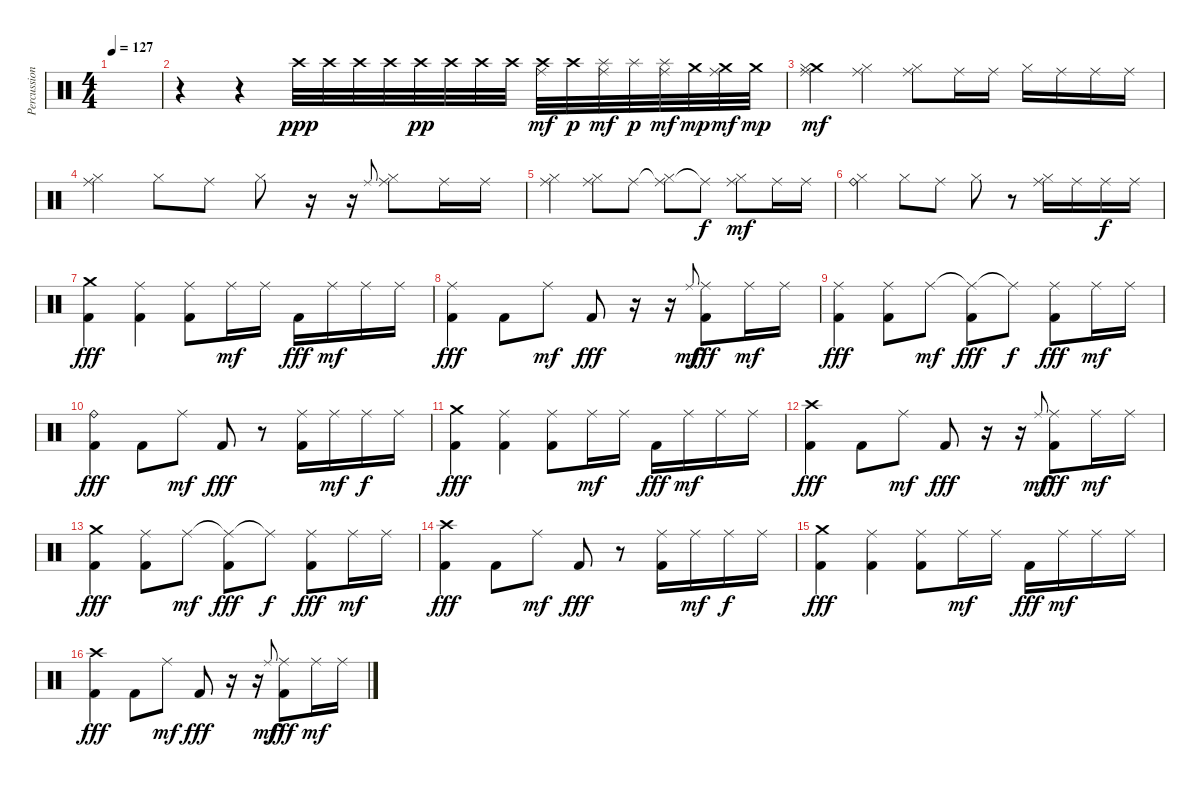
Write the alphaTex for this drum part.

\track ("Percussion" "Percussion") {instrument percussion}
\staff {score}
\articulation defaults
\ts (4 4)
\tempo 127
\clef neutral
\ks c
|
r.4 r.4 "Crash high (hit)".32{dy ppp} "Crash high (hit)".32 "Crash high (hit)".32 "Crash high (hit)".32 "Crash high (hit)".32{dy pp} "Crash high (hit)".32 "Crash high (hit)".32 "Crash high (hit)".32 ("Crash high (hit)" "Ride (middle)").32{dy mf} "Crash high (hit)".32{dy p} ("Splash (hit)" "Ride (middle)").32{dy mf} "Splash (hit)".32{dy p} ("Splash (hit)" "Ride (middle)").32{dy mf} "Crash medium (hit)".32{dy mp} ("Crash medium (hit)" "Ride (middle)").32{dy mf} "Crash medium (hit)".32{dy mp} |
("Crash medium (hit)" "Ride (middle)" "Hi-Hat (closed)").4{dy mf} ("Ride (middle)" "Hi-Hat (closed)").4 ("Ride (middle)" "Hi-Hat (closed)").8 "Ride (middle)".16 "Ride (middle)".16 "Hi-Hat (closed)".16 "Ride (middle)".16 "Ride (middle)".16 "Ride (middle)".16 |
("Ride (middle)" "Hi-Hat (closed)").4 "Hi-Hat (closed)".8 "Ride (middle)".8 "Hi-Hat (closed)".8 r.16 r.16 "Ride (middle)".8{gr onbeat} ("Ride (middle)" "Hi-Hat (closed)").8 "Ride (middle)".16 "Ride (middle)".16 |
("Ride (middle)" "Hi-Hat (closed)").4 ("Ride (middle)" "Hi-Hat (closed)").8 "Ride (middle)".8 ("Ride (middle)"{t} "Hi-Hat (closed)").8 "Ride (middle)"{t}.8{dy f} ("Ride (middle)" "Hi-Hat (closed)").8{dy mf} "Ride (middle)".16 "Ride (middle)".16 |
("Ride (bell)" "Hi-Hat (closed)").4 "Hi-Hat (closed)".8 "Ride (middle)".8 "Hi-Hat (closed)".8 r.8 ("Ride (middle)" "Hi-Hat (closed)").16 "Ride (middle)".16 "Ride (middle)".16{dy f} "Ride (middle)".16 |
("Crash medium (hit)" "Kick (hit) 2").4{dy fff} ("Ride (middle)" "Kick (hit) 2").4 ("Ride (middle)" "Kick (hit) 2").8 "Ride (middle)".16{dy mf} "Ride (middle)".16 "Kick (hit) 2".16{dy fff} "Ride (middle)".16{dy mf} "Ride (middle)".16 "Ride (middle)".16 |
("Ride (middle)" "Kick (hit) 2").4{dy fff} "Kick (hit) 2".8 "Ride (middle)".8{dy mf} "Kick (hit) 2".8{dy fff} r.16 r.16 "Ride (middle)".8{gr onbeat dy mf} ("Ride (middle)" "Kick (hit) 2").8{dy fff} "Ride (middle)".16{dy mf} "Ride (middle)".16 |
("Ride (middle)" "Kick (hit) 2").4{dy fff} ("Ride (middle)" "Kick (hit) 2").8 "Ride (middle)".8{dy mf} ("Ride (middle)"{t} "Kick (hit) 2").8{dy fff} "Ride (middle)"{t}.8{dy f} ("Ride (middle)" "Kick (hit) 2").8{dy fff} "Ride (middle)".16{dy mf} "Ride (middle)".16 |
("Ride (bell)" "Kick (hit) 2").4{dy fff} "Kick (hit) 2".8 "Ride (middle)".8{dy mf} "Kick (hit) 2".8{dy fff} r.8 ("Ride (middle)" "Kick (hit) 2").16 "Ride (middle)".16{dy mf} "Ride (middle)".16{dy f} "Ride (middle)".16 |
("Crash medium (hit)" "Kick (hit) 2").4{dy fff} ("Ride (middle)" "Kick (hit) 2").4 ("Ride (middle)" "Kick (hit) 2").8 "Ride (middle)".16{dy mf} "Ride (middle)".16 "Kick (hit) 2".16{dy fff} "Ride (middle)".16{dy mf} "Ride (middle)".16 "Ride (middle)".16 |
("Crash high (hit)" "Kick (hit) 2").4{dy fff} "Kick (hit) 2".8 "Ride (middle)".8{dy mf} "Kick (hit) 2".8{dy fff} r.16 r.16 "Ride (middle)".8{gr onbeat dy mf} ("Ride (middle)" "Kick (hit) 2").8{dy fff} "Ride (middle)".16{dy mf} "Ride (middle)".16 |
("Crash medium (hit)" "Kick (hit) 2").4{dy fff} ("Ride (middle)" "Kick (hit) 2").8 "Ride (middle)".8{dy mf} ("Ride (middle)"{t} "Kick (hit) 2").8{dy fff} "Ride (middle)"{t}.8{dy f} ("Ride (middle)" "Kick (hit) 2").8{dy fff} "Ride (middle)".16{dy mf} "Ride (middle)".16 |
("Crash high (hit)" "Kick (hit) 2").4{dy fff} "Kick (hit) 2".8 "Ride (middle)".8{dy mf} "Kick (hit) 2".8{dy fff} r.8 ("Ride (middle)" "Kick (hit) 2").16 "Ride (middle)".16{dy mf} "Ride (middle)".16{dy f} "Ride (middle)".16 |
("Crash medium (hit)" "Kick (hit) 2").4{dy fff} ("Ride (middle)" "Kick (hit) 2").4 ("Ride (middle)" "Kick (hit) 2").8 "Ride (middle)".16{dy mf} "Ride (middle)".16 "Kick (hit) 2".16{dy fff} "Ride (middle)".16{dy mf} "Ride (middle)".16 "Ride (middle)".16 |
("Crash high (hit)" "Kick (hit) 2").4{dy fff} "Kick (hit) 2".8 "Ride (middle)".8{dy mf} "Kick (hit) 2".8{dy fff} r.16 r.16 "Ride (middle)".8{gr onbeat dy mf} ("Ride (middle)" "Kick (hit) 2").8{dy fff} "Ride (middle)".16{dy mf} "Ride (middle)".16
